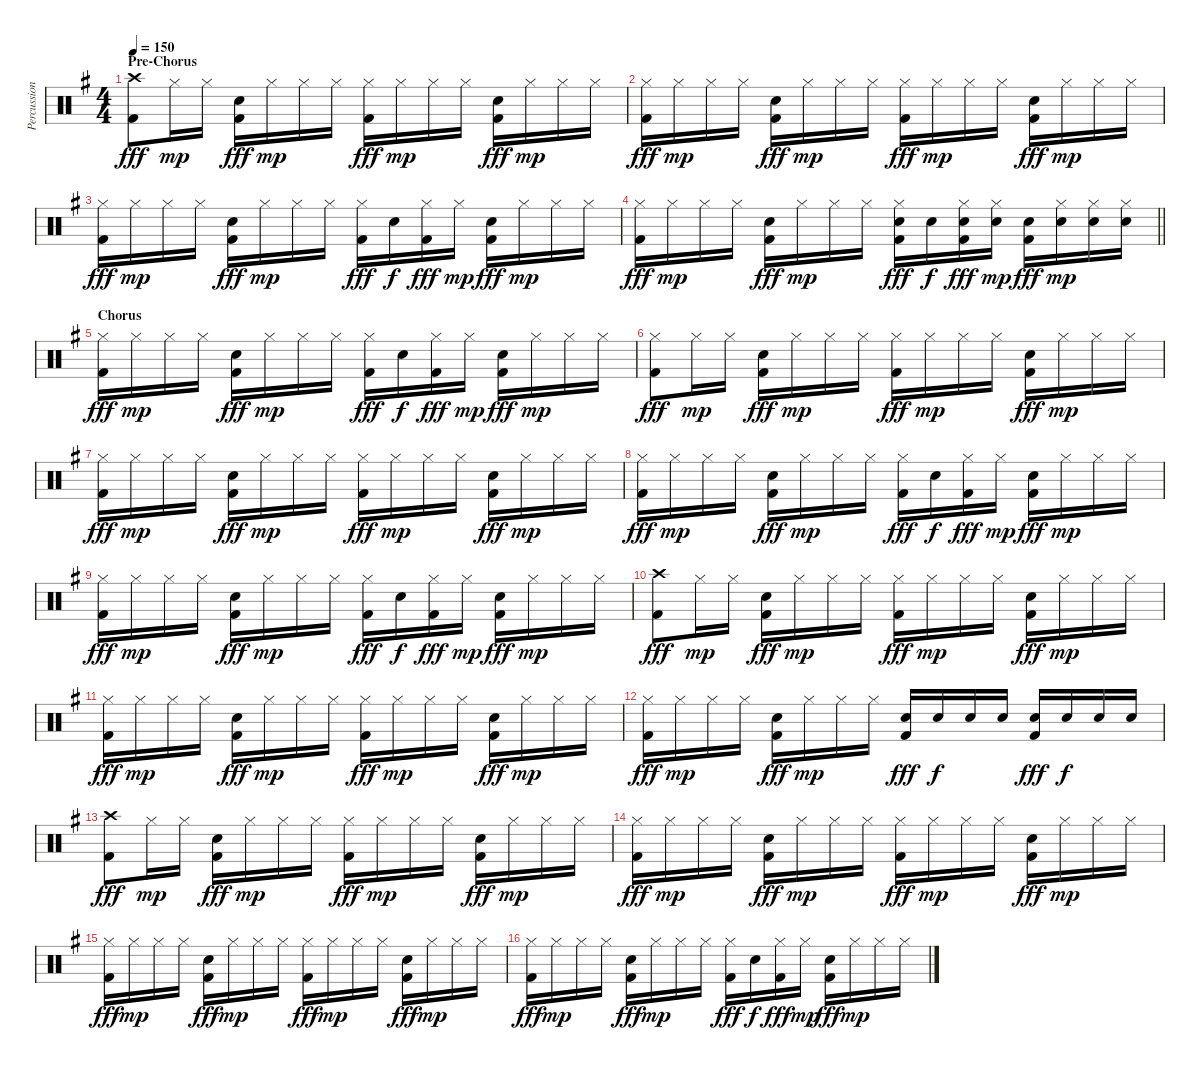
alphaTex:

\track ("Percussion" "Percussion") {instrument percussion}
\staff {score}
\articulation defaults
\ts (4 4)
\section ("" "Pre-Chorus")
\tempo 150
\clef neutral
\ks eminor
("Crash high (hit)" "Kick (hit) 2").8{dy fff} "Hi-Hat (closed)".16{dy mp} "Hi-Hat (closed)".16 ("Electric Snare (hit)" "Kick (hit) 2").16{dy fff} "Hi-Hat (closed)".16{dy mp} "Hi-Hat (closed)".16 "Hi-Hat (closed)".16 ("Hi-Hat (closed)" "Kick (hit) 2").16{dy fff} "Hi-Hat (closed)".16{dy mp} "Hi-Hat (closed)".16 "Hi-Hat (closed)".16 ("Electric Snare (hit)" "Kick (hit) 2").16{dy fff} "Hi-Hat (closed)".16{dy mp} "Hi-Hat (closed)".16 "Hi-Hat (closed)".16 |
("Hi-Hat (closed)" "Kick (hit) 2").16{dy fff} "Hi-Hat (closed)".16{dy mp} "Hi-Hat (closed)".16 "Hi-Hat (closed)".16 ("Electric Snare (hit)" "Kick (hit) 2").16{dy fff} "Hi-Hat (closed)".16{dy mp} "Hi-Hat (closed)".16 "Hi-Hat (closed)".16 ("Hi-Hat (closed)" "Kick (hit) 2").16{dy fff} "Hi-Hat (closed)".16{dy mp} "Hi-Hat (closed)".16 "Hi-Hat (closed)".16 ("Electric Snare (hit)" "Kick (hit) 2").16{dy fff} "Hi-Hat (closed)".16{dy mp} "Hi-Hat (closed)".16 "Hi-Hat (closed)".16 |
("Hi-Hat (closed)" "Kick (hit) 2").16{dy fff} "Hi-Hat (closed)".16{dy mp} "Hi-Hat (closed)".16 "Hi-Hat (closed)".16 ("Electric Snare (hit)" "Kick (hit) 2").16{dy fff} "Hi-Hat (closed)".16{dy mp} "Hi-Hat (closed)".16 "Hi-Hat (closed)".16 ("Hi-Hat (closed)" "Kick (hit) 2").16{dy fff} "Electric Snare (hit)".16{dy f} ("Hi-Hat (closed)" "Kick (hit) 2").16{dy fff} "Hi-Hat (closed)".16{dy mp} ("Electric Snare (hit)" "Kick (hit) 2").16{dy fff} "Hi-Hat (closed)".16{dy mp} "Hi-Hat (closed)".16 "Hi-Hat (closed)".16 |
\barLineRight lightlight
("Hi-Hat (closed)" "Kick (hit) 2").16{dy fff} "Hi-Hat (closed)".16{dy mp} "Hi-Hat (closed)".16 "Hi-Hat (closed)".16 ("Electric Snare (hit)" "Kick (hit) 2").16{dy fff} "Hi-Hat (closed)".16{dy mp} "Hi-Hat (closed)".16 "Hi-Hat (closed)".16 ("Hi-Hat (closed)" "Electric Snare (hit)" "Kick (hit) 2").16{dy fff} "Electric Snare (hit)".16{dy f} ("Hi-Hat (closed)" "Electric Snare (hit)" "Kick (hit) 2").16{dy fff} ("Hi-Hat (closed)" "Electric Snare (hit)").16{dy mp} ("Electric Snare (hit)" "Kick (hit) 2").16{dy fff} ("Hi-Hat (closed)" "Electric Snare (hit)").16{dy mp} ("Hi-Hat (closed)" "Electric Snare (hit)").16 ("Hi-Hat (closed)" "Electric Snare (hit)").16 |
\section ("" "Chorus")
("Hi-Hat (closed)" "Kick (hit) 2").16{dy fff} "Hi-Hat (closed)".16{dy mp} "Hi-Hat (closed)".16 "Hi-Hat (closed)".16 ("Electric Snare (hit)" "Kick (hit) 2").16{dy fff} "Hi-Hat (closed)".16{dy mp} "Hi-Hat (closed)".16 "Hi-Hat (closed)".16 ("Hi-Hat (closed)" "Kick (hit) 2").16{dy fff} "Electric Snare (hit)".16{dy f} ("Hi-Hat (closed)" "Kick (hit) 2").16{dy fff} "Hi-Hat (closed)".16{dy mp} ("Electric Snare (hit)" "Kick (hit) 2").16{dy fff} "Hi-Hat (closed)".16{dy mp} "Hi-Hat (closed)".16 "Hi-Hat (closed)".16 |
("Hi-Hat (closed)" "Kick (hit) 2").8{dy fff} "Hi-Hat (closed)".16{dy mp} "Hi-Hat (closed)".16 ("Electric Snare (hit)" "Kick (hit) 2").16{dy fff} "Hi-Hat (closed)".16{dy mp} "Hi-Hat (closed)".16 "Hi-Hat (closed)".16 ("Hi-Hat (closed)" "Kick (hit) 2").16{dy fff} "Hi-Hat (closed)".16{dy mp} "Hi-Hat (closed)".16 "Hi-Hat (closed)".16 ("Electric Snare (hit)" "Kick (hit) 2").16{dy fff} "Hi-Hat (closed)".16{dy mp} "Hi-Hat (closed)".16 "Hi-Hat (closed)".16 |
("Hi-Hat (closed)" "Kick (hit) 2").16{dy fff} "Hi-Hat (closed)".16{dy mp} "Hi-Hat (closed)".16 "Hi-Hat (closed)".16 ("Electric Snare (hit)" "Kick (hit) 2").16{dy fff} "Hi-Hat (closed)".16{dy mp} "Hi-Hat (closed)".16 "Hi-Hat (closed)".16 ("Hi-Hat (closed)" "Kick (hit) 2").16{dy fff} "Hi-Hat (closed)".16{dy mp} "Hi-Hat (closed)".16 "Hi-Hat (closed)".16 ("Electric Snare (hit)" "Kick (hit) 2").16{dy fff} "Hi-Hat (closed)".16{dy mp} "Hi-Hat (closed)".16 "Hi-Hat (closed)".16 |
("Hi-Hat (closed)" "Kick (hit) 2").16{dy fff} "Hi-Hat (closed)".16{dy mp} "Hi-Hat (closed)".16 "Hi-Hat (closed)".16 ("Electric Snare (hit)" "Kick (hit) 2").16{dy fff} "Hi-Hat (closed)".16{dy mp} "Hi-Hat (closed)".16 "Hi-Hat (closed)".16 ("Hi-Hat (closed)" "Kick (hit) 2").16{dy fff} "Electric Snare (hit)".16{dy f} ("Hi-Hat (closed)" "Kick (hit) 2").16{dy fff} "Hi-Hat (closed)".16{dy mp} ("Electric Snare (hit)" "Kick (hit) 2").16{dy fff} "Hi-Hat (closed)".16{dy mp} "Hi-Hat (closed)".16 "Hi-Hat (closed)".16 |
("Hi-Hat (closed)" "Kick (hit) 2").16{dy fff} "Hi-Hat (closed)".16{dy mp} "Hi-Hat (closed)".16 "Hi-Hat (closed)".16 ("Electric Snare (hit)" "Kick (hit) 2").16{dy fff} "Hi-Hat (closed)".16{dy mp} "Hi-Hat (closed)".16 "Hi-Hat (closed)".16 ("Hi-Hat (closed)" "Kick (hit) 2").16{dy fff} "Electric Snare (hit)".16{dy f} ("Hi-Hat (closed)" "Kick (hit) 2").16{dy fff} "Hi-Hat (closed)".16{dy mp} ("Electric Snare (hit)" "Kick (hit) 2").16{dy fff} "Hi-Hat (closed)".16{dy mp} "Hi-Hat (closed)".16 "Hi-Hat (closed)".16 |
("Crash high (hit)" "Kick (hit) 2").8{dy fff} "Hi-Hat (closed)".16{dy mp} "Hi-Hat (closed)".16 ("Electric Snare (hit)" "Kick (hit) 2").16{dy fff} "Hi-Hat (closed)".16{dy mp} "Hi-Hat (closed)".16 "Hi-Hat (closed)".16 ("Hi-Hat (closed)" "Kick (hit) 2").16{dy fff} "Hi-Hat (closed)".16{dy mp} "Hi-Hat (closed)".16 "Hi-Hat (closed)".16 ("Electric Snare (hit)" "Kick (hit) 2").16{dy fff} "Hi-Hat (closed)".16{dy mp} "Hi-Hat (closed)".16 "Hi-Hat (closed)".16 |
("Hi-Hat (closed)" "Kick (hit) 2").16{dy fff} "Hi-Hat (closed)".16{dy mp} "Hi-Hat (closed)".16 "Hi-Hat (closed)".16 ("Electric Snare (hit)" "Kick (hit) 2").16{dy fff} "Hi-Hat (closed)".16{dy mp} "Hi-Hat (closed)".16 "Hi-Hat (closed)".16 ("Hi-Hat (closed)" "Kick (hit) 2").16{dy fff} "Hi-Hat (closed)".16{dy mp} "Hi-Hat (closed)".16 "Hi-Hat (closed)".16 ("Electric Snare (hit)" "Kick (hit) 2").16{dy fff} "Hi-Hat (closed)".16{dy mp} "Hi-Hat (closed)".16 "Hi-Hat (closed)".16 |
("Hi-Hat (closed)" "Kick (hit) 2").16{dy fff} "Hi-Hat (closed)".16{dy mp} "Hi-Hat (closed)".16 "Hi-Hat (closed)".16 ("Electric Snare (hit)" "Kick (hit) 2").16{dy fff} "Hi-Hat (closed)".16{dy mp} "Hi-Hat (closed)".16 "Hi-Hat (closed)".16 ("Electric Snare (hit)" "Kick (hit) 2").16{dy fff} "Electric Snare (hit)".16{dy f} "Electric Snare (hit)".16 "Electric Snare (hit)".16 ("Electric Snare (hit)" "Kick (hit) 2").16{dy fff} "Electric Snare (hit)".16{dy f} "Electric Snare (hit)".16 "Electric Snare (hit)".16 |
("Crash high (hit)" "Kick (hit) 2").8{dy fff} "Hi-Hat (closed)".16{dy mp} "Hi-Hat (closed)".16 ("Electric Snare (hit)" "Kick (hit) 2").16{dy fff} "Hi-Hat (closed)".16{dy mp} "Hi-Hat (closed)".16 "Hi-Hat (closed)".16 ("Hi-Hat (closed)" "Kick (hit) 2").16{dy fff} "Hi-Hat (closed)".16{dy mp} "Hi-Hat (closed)".16 "Hi-Hat (closed)".16 ("Electric Snare (hit)" "Kick (hit) 2").16{dy fff} "Hi-Hat (closed)".16{dy mp} "Hi-Hat (closed)".16 "Hi-Hat (closed)".16 |
("Hi-Hat (closed)" "Kick (hit) 2").16{dy fff} "Hi-Hat (closed)".16{dy mp} "Hi-Hat (closed)".16 "Hi-Hat (closed)".16 ("Electric Snare (hit)" "Kick (hit) 2").16{dy fff} "Hi-Hat (closed)".16{dy mp} "Hi-Hat (closed)".16 "Hi-Hat (closed)".16 ("Hi-Hat (closed)" "Kick (hit) 2").16{dy fff} "Hi-Hat (closed)".16{dy mp} "Hi-Hat (closed)".16 "Hi-Hat (closed)".16 ("Electric Snare (hit)" "Kick (hit) 2").16{dy fff} "Hi-Hat (closed)".16{dy mp} "Hi-Hat (closed)".16 "Hi-Hat (closed)".16 |
("Hi-Hat (closed)" "Kick (hit) 2").16{dy fff} "Hi-Hat (closed)".16{dy mp} "Hi-Hat (closed)".16 "Hi-Hat (closed)".16 ("Electric Snare (hit)" "Kick (hit) 2").16{dy fff} "Hi-Hat (closed)".16{dy mp} "Hi-Hat (closed)".16 "Hi-Hat (closed)".16 ("Hi-Hat (closed)" "Kick (hit) 2").16{dy fff} "Hi-Hat (closed)".16{dy mp} "Hi-Hat (closed)".16 "Hi-Hat (closed)".16 ("Electric Snare (hit)" "Kick (hit) 2").16{dy fff} "Hi-Hat (closed)".16{dy mp} "Hi-Hat (closed)".16 "Hi-Hat (closed)".16 |
("Hi-Hat (closed)" "Kick (hit) 2").16{dy fff} "Hi-Hat (closed)".16{dy mp} "Hi-Hat (closed)".16 "Hi-Hat (closed)".16 ("Electric Snare (hit)" "Kick (hit) 2").16{dy fff} "Hi-Hat (closed)".16{dy mp} "Hi-Hat (closed)".16 "Hi-Hat (closed)".16 ("Hi-Hat (closed)" "Kick (hit) 2").16{dy fff} "Electric Snare (hit)".16{dy f} ("Hi-Hat (closed)" "Kick (hit) 2").16{dy fff} "Hi-Hat (closed)".16{dy mp} ("Electric Snare (hit)" "Kick (hit) 2").16{dy fff} "Hi-Hat (closed)".16{dy mp} "Hi-Hat (closed)".16 "Hi-Hat (closed)".16
